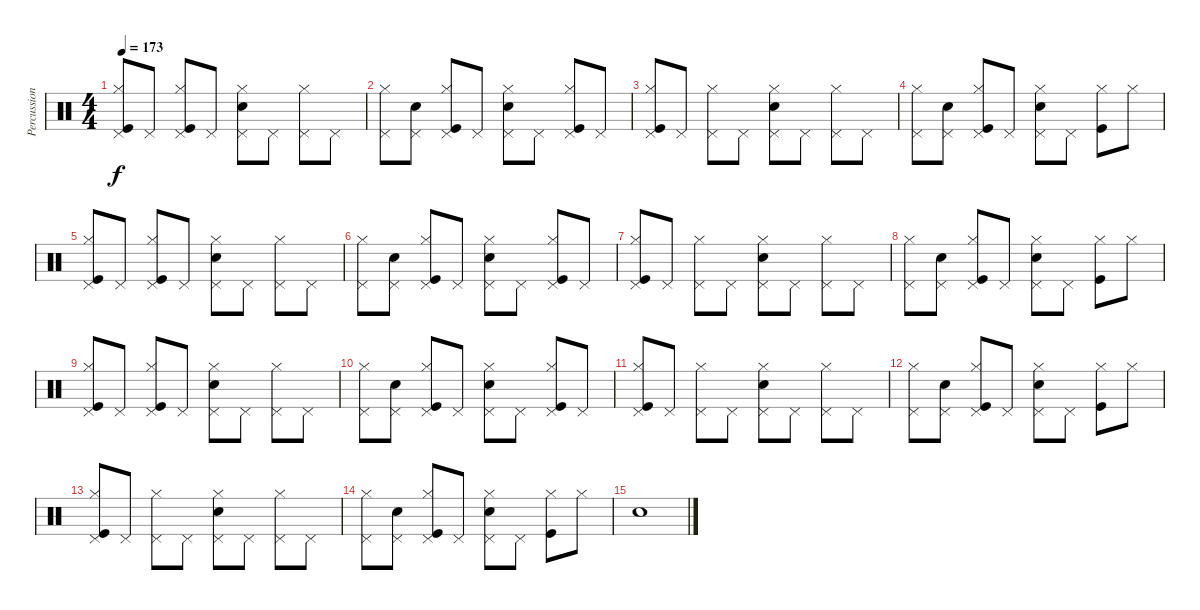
\track ("Percussion" "Percussion") {instrument percussion}
\staff {score}
\articulation defaults
\ts (4 4)
\tempo 173
\clef neutral
\ks c
("Kick (hit)" "Hi-Hat (closed)" "Pedal Hi-Hat (hit)").8{dy f} "Pedal Hi-Hat (hit)".8 ("Kick (hit)" "Hi-Hat (closed)" "Pedal Hi-Hat (hit)").8 "Pedal Hi-Hat (hit)".8 ("Snare (hit) 2" "Hi-Hat (closed)" "Pedal Hi-Hat (hit)").8 "Pedal Hi-Hat (hit)".8 ("Hi-Hat (closed)" "Pedal Hi-Hat (hit)").8 "Pedal Hi-Hat (hit)".8 |
("Hi-Hat (closed)" "Pedal Hi-Hat (hit)").8 ("Snare (hit) 2" "Pedal Hi-Hat (hit)").8 ("Kick (hit)" "Hi-Hat (closed)" "Pedal Hi-Hat (hit)").8 "Pedal Hi-Hat (hit)".8 ("Snare (hit) 2" "Hi-Hat (closed)" "Pedal Hi-Hat (hit)").8 "Pedal Hi-Hat (hit)".8 ("Kick (hit)" "Hi-Hat (closed)" "Pedal Hi-Hat (hit)").8 "Pedal Hi-Hat (hit)".8 |
("Kick (hit)" "Hi-Hat (closed)" "Pedal Hi-Hat (hit)").8 "Pedal Hi-Hat (hit)".8 ("Hi-Hat (closed)" "Pedal Hi-Hat (hit)").8 "Pedal Hi-Hat (hit)".8 ("Snare (hit) 2" "Hi-Hat (closed)" "Pedal Hi-Hat (hit)").8 "Pedal Hi-Hat (hit)".8 ("Hi-Hat (closed)" "Pedal Hi-Hat (hit)").8 "Pedal Hi-Hat (hit)".8 |
("Hi-Hat (closed)" "Pedal Hi-Hat (hit)").8 ("Snare (hit) 2" "Pedal Hi-Hat (hit)").8 ("Kick (hit)" "Hi-Hat (closed)" "Pedal Hi-Hat (hit)").8 "Pedal Hi-Hat (hit)".8 ("Snare (hit) 2" "Hi-Hat (closed)" "Pedal Hi-Hat (hit)").8 "Pedal Hi-Hat (hit)".8 ("Kick (hit)" "Hi-Hat (closed)").8 "Hi-Hat (closed)".8 |
("Kick (hit)" "Hi-Hat (closed)" "Pedal Hi-Hat (hit)").8 "Pedal Hi-Hat (hit)".8 ("Kick (hit)" "Hi-Hat (closed)" "Pedal Hi-Hat (hit)").8 "Pedal Hi-Hat (hit)".8 ("Snare (hit) 2" "Hi-Hat (closed)" "Pedal Hi-Hat (hit)").8 "Pedal Hi-Hat (hit)".8 ("Hi-Hat (closed)" "Pedal Hi-Hat (hit)").8 "Pedal Hi-Hat (hit)".8 |
("Hi-Hat (closed)" "Pedal Hi-Hat (hit)").8 ("Snare (hit) 2" "Pedal Hi-Hat (hit)").8 ("Kick (hit)" "Hi-Hat (closed)" "Pedal Hi-Hat (hit)").8 "Pedal Hi-Hat (hit)".8 ("Snare (hit) 2" "Hi-Hat (closed)" "Pedal Hi-Hat (hit)").8 "Pedal Hi-Hat (hit)".8 ("Kick (hit)" "Hi-Hat (closed)" "Pedal Hi-Hat (hit)").8 "Pedal Hi-Hat (hit)".8 |
("Kick (hit)" "Hi-Hat (closed)" "Pedal Hi-Hat (hit)").8 "Pedal Hi-Hat (hit)".8 ("Hi-Hat (closed)" "Pedal Hi-Hat (hit)").8 "Pedal Hi-Hat (hit)".8 ("Snare (hit) 2" "Hi-Hat (closed)" "Pedal Hi-Hat (hit)").8 "Pedal Hi-Hat (hit)".8 ("Hi-Hat (closed)" "Pedal Hi-Hat (hit)").8 "Pedal Hi-Hat (hit)".8 |
("Hi-Hat (closed)" "Pedal Hi-Hat (hit)").8 ("Snare (hit) 2" "Pedal Hi-Hat (hit)").8 ("Kick (hit)" "Hi-Hat (closed)" "Pedal Hi-Hat (hit)").8 "Pedal Hi-Hat (hit)".8 ("Snare (hit) 2" "Hi-Hat (closed)" "Pedal Hi-Hat (hit)").8 "Pedal Hi-Hat (hit)".8 ("Kick (hit)" "Hi-Hat (closed)").8 "Hi-Hat (closed)".8 |
("Kick (hit)" "Hi-Hat (closed)" "Pedal Hi-Hat (hit)").8 "Pedal Hi-Hat (hit)".8 ("Kick (hit)" "Hi-Hat (closed)" "Pedal Hi-Hat (hit)").8 "Pedal Hi-Hat (hit)".8 ("Snare (hit) 2" "Hi-Hat (closed)" "Pedal Hi-Hat (hit)").8 "Pedal Hi-Hat (hit)".8 ("Hi-Hat (closed)" "Pedal Hi-Hat (hit)").8 "Pedal Hi-Hat (hit)".8 |
("Hi-Hat (closed)" "Pedal Hi-Hat (hit)").8 ("Snare (hit) 2" "Pedal Hi-Hat (hit)").8 ("Kick (hit)" "Hi-Hat (closed)" "Pedal Hi-Hat (hit)").8 "Pedal Hi-Hat (hit)".8 ("Snare (hit) 2" "Hi-Hat (closed)" "Pedal Hi-Hat (hit)").8 "Pedal Hi-Hat (hit)".8 ("Kick (hit)" "Hi-Hat (closed)" "Pedal Hi-Hat (hit)").8 "Pedal Hi-Hat (hit)".8 |
("Kick (hit)" "Hi-Hat (closed)" "Pedal Hi-Hat (hit)").8 "Pedal Hi-Hat (hit)".8 ("Hi-Hat (closed)" "Pedal Hi-Hat (hit)").8 "Pedal Hi-Hat (hit)".8 ("Snare (hit) 2" "Hi-Hat (closed)" "Pedal Hi-Hat (hit)").8 "Pedal Hi-Hat (hit)".8 ("Hi-Hat (closed)" "Pedal Hi-Hat (hit)").8 "Pedal Hi-Hat (hit)".8 |
("Hi-Hat (closed)" "Pedal Hi-Hat (hit)").8 ("Snare (hit) 2" "Pedal Hi-Hat (hit)").8 ("Kick (hit)" "Hi-Hat (closed)" "Pedal Hi-Hat (hit)").8 "Pedal Hi-Hat (hit)".8 ("Snare (hit) 2" "Hi-Hat (closed)" "Pedal Hi-Hat (hit)").8 "Pedal Hi-Hat (hit)".8 ("Kick (hit)" "Hi-Hat (closed)").8 "Hi-Hat (closed)".8 |
("Kick (hit)" "Hi-Hat (closed)" "Pedal Hi-Hat (hit)").8 "Pedal Hi-Hat (hit)".8 ("Hi-Hat (closed)" "Pedal Hi-Hat (hit)").8 "Pedal Hi-Hat (hit)".8 ("Snare (hit) 2" "Hi-Hat (closed)" "Pedal Hi-Hat (hit)").8 "Pedal Hi-Hat (hit)".8 ("Hi-Hat (closed)" "Pedal Hi-Hat (hit)").8 "Pedal Hi-Hat (hit)".8 |
("Hi-Hat (closed)" "Pedal Hi-Hat (hit)").8 ("Snare (hit) 2" "Pedal Hi-Hat (hit)").8 ("Kick (hit)" "Hi-Hat (closed)" "Pedal Hi-Hat (hit)").8 "Pedal Hi-Hat (hit)".8 ("Snare (hit) 2" "Hi-Hat (closed)" "Pedal Hi-Hat (hit)").8 "Pedal Hi-Hat (hit)".8 ("Kick (hit)" "Hi-Hat (closed)").8 "Hi-Hat (closed)".8 |
"Snare (hit) 2".1
